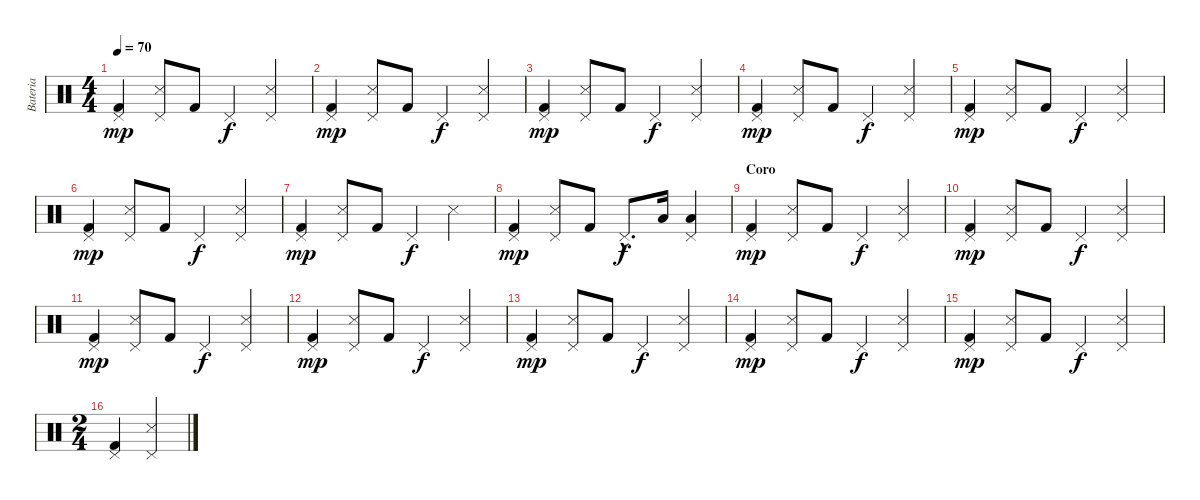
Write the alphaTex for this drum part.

\track ("Bateria" "Bateria") {instrument percussion}
\staff {score}
\articulation defaults
\ts (4 4)
\tempo 70
\clef neutral
\ks c
("Pedal Hi-Hat (hit)" "Kick (hit) 2").4{dy mp} ("Pedal Hi-Hat (hit)" "Snare (side stick) 3").8 "Kick (hit) 2".8 "Pedal Hi-Hat (hit)".4{dy f} ("Pedal Hi-Hat (hit)" "Snare (side stick) 3").4 |
("Pedal Hi-Hat (hit)" "Kick (hit) 2").4{dy mp} ("Pedal Hi-Hat (hit)" "Snare (side stick) 3").8 "Kick (hit) 2".8 "Pedal Hi-Hat (hit)".4{dy f} ("Pedal Hi-Hat (hit)" "Snare (side stick) 3").4 |
("Pedal Hi-Hat (hit)" "Kick (hit) 2").4{dy mp} ("Pedal Hi-Hat (hit)" "Snare (side stick) 3").8 "Kick (hit) 2".8 "Pedal Hi-Hat (hit)".4{dy f} ("Pedal Hi-Hat (hit)" "Snare (side stick) 3").4 |
("Pedal Hi-Hat (hit)" "Kick (hit) 2").4{dy mp} ("Pedal Hi-Hat (hit)" "Snare (side stick) 3").8 "Kick (hit) 2".8 "Pedal Hi-Hat (hit)".4{dy f} ("Pedal Hi-Hat (hit)" "Snare (side stick) 3").4 |
("Pedal Hi-Hat (hit)" "Kick (hit) 2").4{dy mp} ("Pedal Hi-Hat (hit)" "Snare (side stick) 3").8 "Kick (hit) 2".8 "Pedal Hi-Hat (hit)".4{dy f} ("Pedal Hi-Hat (hit)" "Snare (side stick) 3").4 |
("Pedal Hi-Hat (hit)" "Kick (hit) 2").4{dy mp} ("Pedal Hi-Hat (hit)" "Snare (side stick) 3").8 "Kick (hit) 2".8 "Pedal Hi-Hat (hit)".4{dy f} ("Pedal Hi-Hat (hit)" "Snare (side stick) 3").4 |
("Pedal Hi-Hat (hit)" "Kick (hit) 2").4{dy mp} ("Pedal Hi-Hat (hit)" "Snare (side stick) 3").8 "Kick (hit) 2".8 "Pedal Hi-Hat (hit)".4{dy f} "Snare (side stick) 3".4 |
("Pedal Hi-Hat (hit)" "Kick (hit) 2").4{dy mp} ("Pedal Hi-Hat (hit)" "Snare (side stick) 3").8 "Kick (hit) 2".8 "Pedal Hi-Hat (hit)"{hac}.8{d dy f} "Low Floor Tom (hit)".16 ("Pedal Hi-Hat (hit)" "Low Tom (hit)").4 |
\section ("" "Coro")
("Pedal Hi-Hat (hit)" "Kick (hit) 2").4{dy mp} ("Pedal Hi-Hat (hit)" "Snare (side stick) 3").8 "Kick (hit) 2".8 "Pedal Hi-Hat (hit)".4{dy f} ("Pedal Hi-Hat (hit)" "Snare (side stick) 3").4 |
("Pedal Hi-Hat (hit)" "Kick (hit) 2").4{dy mp} ("Pedal Hi-Hat (hit)" "Snare (side stick) 3").8 "Kick (hit) 2".8 "Pedal Hi-Hat (hit)".4{dy f} ("Pedal Hi-Hat (hit)" "Snare (side stick) 3").4 |
("Pedal Hi-Hat (hit)" "Kick (hit) 2").4{dy mp} ("Pedal Hi-Hat (hit)" "Snare (side stick) 3").8 "Kick (hit) 2".8 "Pedal Hi-Hat (hit)".4{dy f} ("Pedal Hi-Hat (hit)" "Snare (side stick) 3").4 |
("Pedal Hi-Hat (hit)" "Kick (hit) 2").4{dy mp} ("Pedal Hi-Hat (hit)" "Snare (side stick) 3").8 "Kick (hit) 2".8 "Pedal Hi-Hat (hit)".4{dy f} ("Pedal Hi-Hat (hit)" "Snare (side stick) 3").4 |
("Pedal Hi-Hat (hit)" "Kick (hit) 2").4{dy mp} ("Pedal Hi-Hat (hit)" "Snare (side stick) 3").8 "Kick (hit) 2".8 "Pedal Hi-Hat (hit)".4{dy f} ("Pedal Hi-Hat (hit)" "Snare (side stick) 3").4 |
("Pedal Hi-Hat (hit)" "Kick (hit) 2").4{dy mp} ("Pedal Hi-Hat (hit)" "Snare (side stick) 3").8 "Kick (hit) 2".8 "Pedal Hi-Hat (hit)".4{dy f} ("Pedal Hi-Hat (hit)" "Snare (side stick) 3").4 |
("Pedal Hi-Hat (hit)" "Kick (hit) 2").4{dy mp} ("Pedal Hi-Hat (hit)" "Snare (side stick) 3").8 "Kick (hit) 2".8 "Pedal Hi-Hat (hit)".4{dy f} ("Pedal Hi-Hat (hit)" "Snare (side stick) 3").4 |
\ts (2 4)
("Kick (hit) 2" "Pedal Hi-Hat (hit)").4 ("Snare (side stick) 3" "Pedal Hi-Hat (hit)").4
